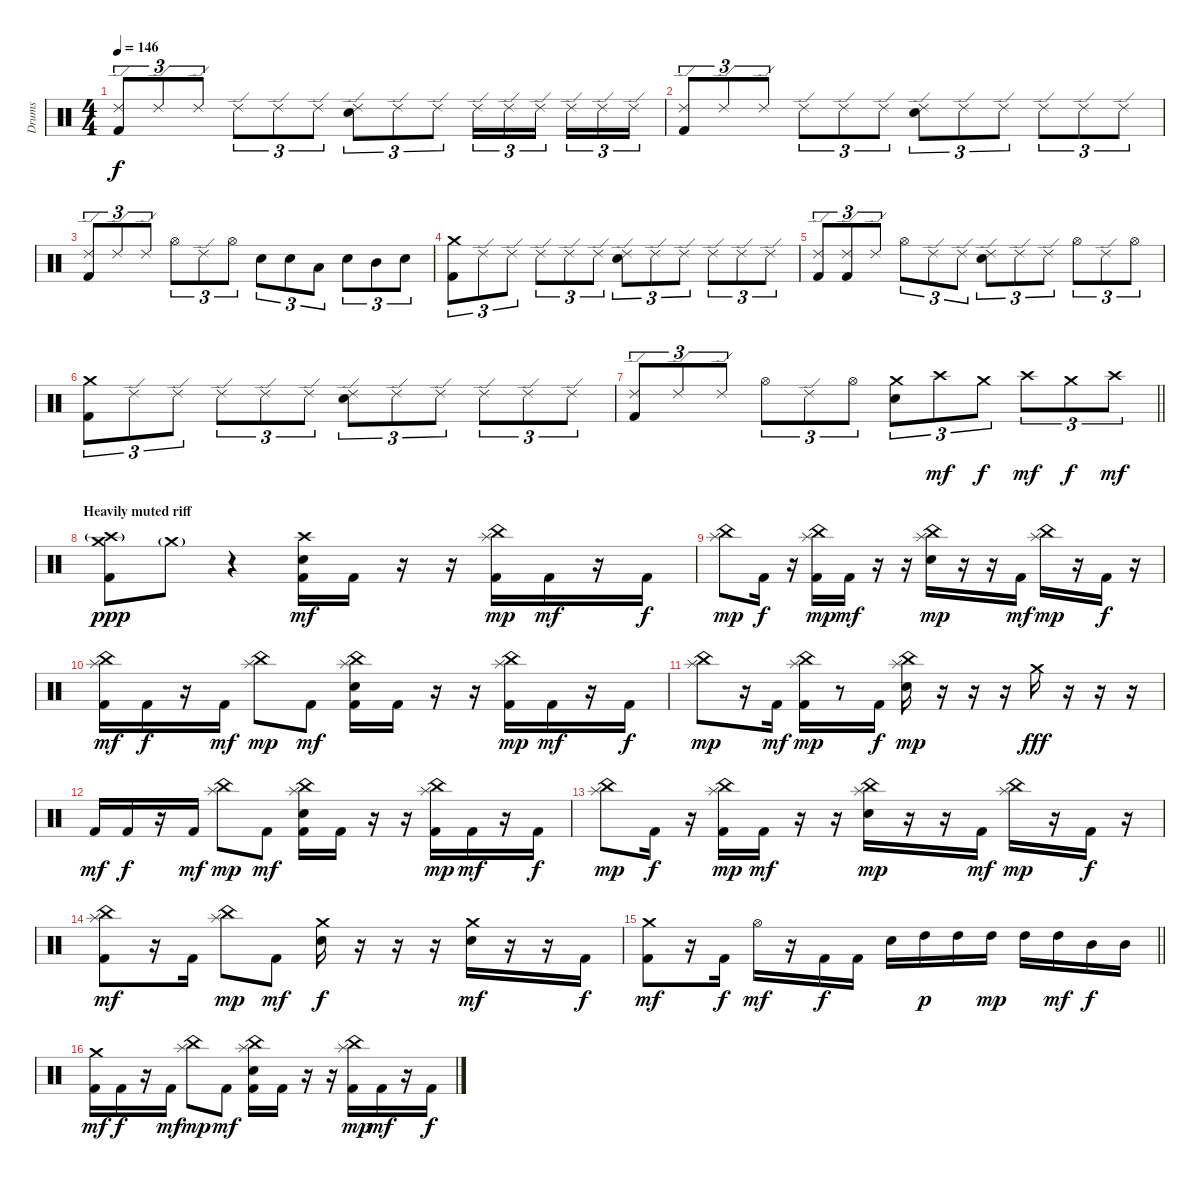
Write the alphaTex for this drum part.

\track ("Drums" "Drums") {instrument percussion}
\staff {score}
\articulation defaults
\ts (4 4)
\tempo 146
\clef neutral
\ks c
("Ride (edge) 2" "Kick (hit) 2").8{tu (3 2) dy f} "Ride (edge) 2".8{tu (3 2)} "Ride (edge) 2".8{tu (3 2)} "Ride (edge) 2".8{tu (3 2)} "Ride (edge) 2".8{tu (3 2)} "Ride (edge) 2".8{tu (3 2)} ("Ride (edge) 2" "Electric Snare (hit)").8{tu (3 2)} "Ride (edge) 2".8{tu (3 2)} "Ride (edge) 2".8{tu (3 2)} "Ride (edge) 2".16{tu (3 2)} "Ride (edge) 2".16{tu (3 2)} "Ride (edge) 2".16{tu (3 2) beam splitsecondary} "Ride (edge) 2".16{tu (3 2)} "Ride (edge) 2".16{tu (3 2)} "Ride (edge) 2".16{tu (3 2)} |
("Ride (edge) 2" "Kick (hit) 2").8{tu (3 2)} "Ride (edge) 2".8{tu (3 2)} "Ride (edge) 2".8{tu (3 2)} "Ride (edge) 2".8{tu (3 2)} "Ride (edge) 2".8{tu (3 2)} "Ride (edge) 2".8{tu (3 2)} ("Ride (edge) 2" "Electric Snare (hit)").8{tu (3 2)} "Ride (edge) 2".8{tu (3 2)} "Ride (edge) 2".8{tu (3 2)} "Ride (edge) 2".8{tu (3 2)} "Ride (edge) 2".8{tu (3 2)} "Ride (edge) 2".8{tu (3 2)} |
("Ride (edge) 2" "Kick (hit) 2").8{tu (3 2)} "Ride (edge) 2".8{tu (3 2)} "Ride (edge) 2".8{tu (3 2)} "Hi-Hat (open)".8{tu (3 2)} "Ride (edge) 2".8{tu (3 2)} "Hi-Hat (open)".8{tu (3 2)} "Electric Snare (hit)".8{tu (3 2)} "Electric Snare (hit)".8{tu (3 2)} "Low Tom (hit)".8{tu (3 2)} "Electric Snare (hit)".8{tu (3 2)} "Mid Tom (hit)".8{tu (3 2)} "Electric Snare (hit)".8{tu (3 2)} |
("Crash medium (hit)" "Kick (hit) 2").8{tu (3 2)} "Ride (edge) 2".8{tu (3 2)} "Ride (edge) 2".8{tu (3 2)} "Ride (edge) 2".8{tu (3 2)} "Ride (edge) 2".8{tu (3 2)} "Ride (edge) 2".8{tu (3 2)} ("Ride (edge) 2" "Electric Snare (hit)").8{tu (3 2)} "Ride (edge) 2".8{tu (3 2)} "Ride (edge) 2".8{tu (3 2)} "Ride (edge) 2".8{tu (3 2)} "Ride (edge) 2".8{tu (3 2)} "Ride (edge) 2".8{tu (3 2)} |
("Ride (edge) 2" "Kick (hit) 2").8{tu (3 2)} ("Ride (edge) 2" "Kick (hit) 2").8{tu (3 2)} "Ride (edge) 2".8{tu (3 2)} "Hi-Hat (open)".8{tu (3 2)} "Ride (edge) 2".8{tu (3 2)} "Ride (edge) 2".8{tu (3 2)} ("Ride (edge) 2" "Electric Snare (hit)").8{tu (3 2)} "Ride (edge) 2".8{tu (3 2)} "Ride (edge) 2".8{tu (3 2)} "Hi-Hat (open)".8{tu (3 2)} "Ride (edge) 2".8{tu (3 2)} "Hi-Hat (open)".8{tu (3 2)} |
("Crash medium (hit)" "Kick (hit) 2").8{tu (3 2)} "Ride (edge) 2".8{tu (3 2)} "Ride (edge) 2".8{tu (3 2)} "Ride (edge) 2".8{tu (3 2)} "Ride (edge) 2".8{tu (3 2)} "Ride (edge) 2".8{tu (3 2)} ("Ride (edge) 2" "Electric Snare (hit)").8{tu (3 2)} "Ride (edge) 2".8{tu (3 2)} "Ride (edge) 2".8{tu (3 2)} "Ride (edge) 2".8{tu (3 2)} "Ride (edge) 2".8{tu (3 2)} "Ride (edge) 2".8{tu (3 2)} |
\barLineRight lightlight
("Ride (edge) 2" "Kick (hit) 2").8{tu (3 2)} "Ride (edge) 2".8{tu (3 2)} "Ride (edge) 2".8{tu (3 2)} "Hi-Hat (open)".8{tu (3 2)} "Ride (edge) 2".8{tu (3 2)} "Hi-Hat (open)".8{tu (3 2)} ("Crash medium (hit)" "Electric Snare (hit)").8{tu (3 2)} "Crash high (hit)".8{tu (3 2) dy mf} "Crash medium (hit)".8{tu (3 2) dy f} "Crash high (hit)".8{tu (3 2) dy mf} "Crash medium (hit)".8{tu (3 2) dy f} "Crash high (hit)".8{tu (3 2) dy mf} |
\section ("" "Heavily muted riff")
("Crash medium (hit)" "Crash high (hit)"{g} "Kick (hit) 2").8{dy ppp} "Crash medium (hit)"{g}.8 r.4 ("Crash high (hit)" "Electric Snare (hit)" "Kick (hit) 2").16{dy mf} "Kick (hit) 2".16 r.16 r.16 ("Splash (hit)" "China (hit)" "Kick (hit) 2").16{dy mp} "Kick (hit) 2".16{dy mf} r.16 "Kick (hit) 2".16{dy f} |
("Splash (hit)" "China (hit)").8{dy mp} "Kick (hit) 2".16{dy f} r.16 ("Splash (hit)" "China (hit)" "Kick (hit) 2").16{dy mp} "Kick (hit) 2".16{dy mf} r.16 r.16 ("Splash (hit)" "China (hit)" "Electric Snare (hit)").16{dy mp} r.16 r.16 "Kick (hit) 2".16{dy mf} ("Splash (hit)" "China (hit)").16{dy mp} r.16 "Kick (hit) 2".16{dy f} r.16 |
("Splash (hit)" "China (hit)" "Kick (hit) 2").16{dy mf} "Kick (hit) 2".16{dy f} r.16 "Kick (hit) 2".16{dy mf} ("Splash (hit)" "China (hit)").8{dy mp} "Kick (hit) 2".8{dy mf} ("Splash (hit)" "China (hit)" "Electric Snare (hit)" "Kick (hit) 2").16 "Kick (hit) 2".16 r.16 r.16 ("Splash (hit)" "China (hit)" "Kick (hit) 2").16{dy mp} "Kick (hit) 2".16{dy mf} r.16 "Kick (hit) 2".16{dy f} |
("Splash (hit)" "China (hit)").8{dy mp} r.16 "Kick (hit) 2".16{dy mf} ("Splash (hit)" "China (hit)" "Kick (hit) 2").16{dy mp} r.8 "Kick (hit) 2".16{dy f} ("Splash (hit)" "China (hit)" "Electric Snare (hit)").16{dy mp} r.16 r.16 r.16{volume 0} "Crash medium (hit)".16{dy fff volume 14} r.16 r.16 r.16 |
"Kick (hit) 2".16{dy mf} "Kick (hit) 2".16{dy f} r.16 "Kick (hit) 2".16{dy mf} ("Splash (hit)" "China (hit)").8{dy mp} "Kick (hit) 2".8{dy mf} ("Splash (hit)" "China (hit)" "Electric Snare (hit)" "Kick (hit) 2").16 "Kick (hit) 2".16 r.16 r.16 ("Splash (hit)" "China (hit)" "Kick (hit) 2").16{dy mp} "Kick (hit) 2".16{dy mf} r.16 "Kick (hit) 2".16{dy f} |
("Splash (hit)" "China (hit)").8{dy mp} "Kick (hit) 2".16{dy f} r.16 ("Splash (hit)" "China (hit)" "Kick (hit) 2").16{dy mp} "Kick (hit) 2".16{dy mf} r.16 r.16 ("Splash (hit)" "China (hit)" "Electric Snare (hit)").16{dy mp} r.16 r.16 "Kick (hit) 2".16{dy mf} ("Splash (hit)" "China (hit)").16{dy mp} r.16 "Kick (hit) 2".16{dy f} r.16 |
("Splash (hit)" "China (hit)" "Kick (hit) 2").8{dy mf} r.16 "Kick (hit) 2".16 ("Splash (hit)" "China (hit)").8{dy mp} "Kick (hit) 2".8{dy mf} ("Crash medium (hit)" "Electric Snare (hit)").16{dy f} r.16 r.16 r.16 ("Crash medium (hit)" "Electric Snare (hit)").16{dy mf} r.16 r.16 "Kick (hit) 2".16{dy f} |
\barLineRight lightlight
("Crash medium (hit)" "Kick (hit) 2").8{dy mf} r.16 "Kick (hit) 2".16{dy f} "Hi-Hat (open)".16{dy mf} r.16 "Kick (hit) 2".16{dy f} "Kick (hit) 2".16 "Electric Snare (hit)".16 "High Tom (hit)".16{dy p} "High Tom (hit)".16 "High Tom (hit)".16{dy mp} "High Tom (hit)".16 "High Tom (hit)".16{dy mf} "Mid Tom (hit)".16{dy f} "Mid Tom (hit)".16 |
("Crash medium (hit)" "Kick (hit) 2").16{dy mf} "Kick (hit) 2".16{dy f} r.16 "Kick (hit) 2".16{dy mf} ("Splash (hit)" "China (hit)").8{dy mp} "Kick (hit) 2".8{dy mf} ("Splash (hit)" "China (hit)" "Electric Snare (hit)" "Kick (hit) 2").16 "Kick (hit) 2".16 r.16 r.16 ("Splash (hit)" "China (hit)" "Kick (hit) 2").16{dy mp} "Kick (hit) 2".16{dy mf} r.16 "Kick (hit) 2".16{dy f}
